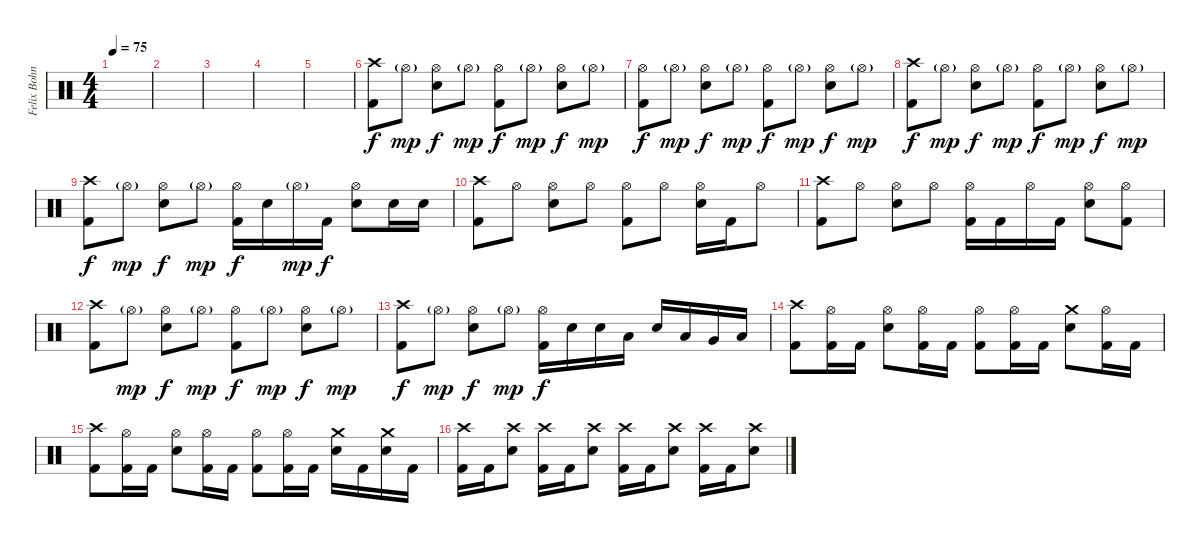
\track ("Felix Bohnke" "Felix Bohn") {instrument percussion}
\staff {score}
\articulation defaults
\ts (4 4)
\tempo 75
\clef neutral
\ks c
|
|
|
|
|
("Crash high (hit)" "Kick (hit) 2").8 "Hi-Hat (open)"{g}.8{dy mp} ("Hi-Hat (open)" "Snare (hit) 2").8{dy f} "Hi-Hat (open)"{g}.8{dy mp} ("Hi-Hat (open)" "Kick (hit) 2").8{dy f} "Hi-Hat (open)"{g}.8{dy mp} ("Hi-Hat (open)" "Snare (hit) 2").8{dy f} "Hi-Hat (open)"{g}.8{dy mp} |
("Hi-Hat (open)" "Kick (hit) 2").8{dy f} "Hi-Hat (open)"{g}.8{dy mp} ("Hi-Hat (open)" "Snare (hit) 2").8{dy f} "Hi-Hat (open)"{g}.8{dy mp} ("Hi-Hat (open)" "Kick (hit) 2").8{dy f} "Hi-Hat (open)"{g}.8{dy mp} ("Hi-Hat (open)" "Snare (hit) 2").8{dy f} "Hi-Hat (open)"{g}.8{dy mp} |
("Crash high (hit)" "Kick (hit) 2").8{dy f} "Hi-Hat (open)"{g}.8{dy mp} ("Hi-Hat (open)" "Snare (hit) 2").8{dy f} "Hi-Hat (open)"{g}.8{dy mp} ("Hi-Hat (open)" "Kick (hit) 2").8{dy f} "Hi-Hat (open)"{g}.8{dy mp} ("Hi-Hat (open)" "Snare (hit) 2").8{dy f} "Hi-Hat (open)"{g}.8{dy mp} |
("Crash high (hit)" "Kick (hit) 2").8{dy f} "Hi-Hat (open)"{g}.8{dy mp} ("Hi-Hat (open)" "Snare (hit) 2").8{dy f} "Hi-Hat (open)"{g}.8{dy mp} ("Hi-Hat (open)" "Kick (hit) 2").16{dy f} "Snare (hit) 2".16 "Hi-Hat (open)"{g}.16{dy mp} "Kick (hit) 2".16{dy f} ("Hi-Hat (open)" "Snare (hit) 2").8 "Snare (hit) 2".16 "Snare (hit) 2".16 |
("Crash high (hit)" "Kick (hit) 2").8 "Hi-Hat (open)".8 ("Hi-Hat (open)" "Snare (hit) 2").8 "Hi-Hat (open)".8 ("Hi-Hat (open)" "Kick (hit) 2").8 "Hi-Hat (open)".8 ("Hi-Hat (open)" "Snare (hit) 2").16 "Kick (hit) 2".16 "Hi-Hat (open)".8 |
("Crash high (hit)" "Kick (hit) 2").8 "Hi-Hat (open)".8 ("Hi-Hat (open)" "Snare (hit) 2").8 "Hi-Hat (open)".8 ("Hi-Hat (open)" "Kick (hit) 2").16 "Kick (hit) 2".16 "Hi-Hat (open)".16 "Kick (hit) 2".16 ("Hi-Hat (open)" "Snare (hit) 2").8 ("Hi-Hat (open)" "Kick (hit) 2").8 |
("Crash high (hit)" "Kick (hit) 2").8 "Hi-Hat (open)"{g}.8{dy mp} ("Hi-Hat (open)" "Snare (hit) 2").8{dy f} "Hi-Hat (open)"{g}.8{dy mp} ("Hi-Hat (open)" "Kick (hit) 2").8{dy f} "Hi-Hat (open)"{g}.8{dy mp} ("Hi-Hat (open)" "Snare (hit) 2").8{dy f} "Hi-Hat (open)"{g}.8{dy mp} |
("Crash high (hit)" "Kick (hit) 2").8{dy f} "Hi-Hat (open)"{g}.8{dy mp} ("Hi-Hat (open)" "Snare (hit) 2").8{dy f} "Hi-Hat (open)"{g}.8{dy mp} ("Hi-Hat (open)" "Kick (hit) 2").16{dy f} "Snare (hit) 2".16 "Snare (hit) 2".16 "Low Tom (hit)".16 "Snare (hit) 2".16 "Low Tom (hit)".16 "Very Low Tom (hit)".16 "Low Floor Tom (hit)".16 |
("Crash high (hit)" "Kick (hit) 2").8 ("Hi-Hat (open)" "Kick (hit) 2").16 "Kick (hit) 2".16 ("Hi-Hat (open)" "Snare (hit) 2").8 ("Hi-Hat (open)" "Kick (hit) 2").16 "Kick (hit) 2".16 ("Hi-Hat (open)" "Kick (hit) 2").8 ("Hi-Hat (open)" "Kick (hit) 2").16 "Kick (hit) 2".16 ("Crash medium (hit)" "Snare (hit) 2").8 ("Hi-Hat (open)" "Kick (hit) 2").16 "Kick (hit) 2".16 |
("Crash high (hit)" "Kick (hit) 2").8 ("Hi-Hat (open)" "Kick (hit) 2").16 "Kick (hit) 2".16 ("Hi-Hat (open)" "Snare (hit) 2").8 ("Hi-Hat (open)" "Kick (hit) 2").16 "Kick (hit) 2".16 ("Hi-Hat (open)" "Kick (hit) 2").8 ("Hi-Hat (open)" "Kick (hit) 2").16 "Kick (hit) 2".16 ("Crash medium (hit)" "Snare (hit) 2").16 "Kick (hit) 2".16 ("Crash medium (hit)" "Snare (hit) 2").16 "Kick (hit) 2".16 |
("Crash high (hit)" "Kick (hit) 2").16 "Kick (hit) 2".16 ("Crash high (hit)" "Snare (hit) 2").8 ("Crash high (hit)" "Kick (hit) 2").16 "Kick (hit) 2".16 ("Crash high (hit)" "Snare (hit) 2").8 ("Crash high (hit)" "Kick (hit) 2").16 "Kick (hit) 2".16 ("Crash high (hit)" "Snare (hit) 2").8 ("Crash high (hit)" "Kick (hit) 2").16 "Kick (hit) 2".16 ("Crash high (hit)" "Snare (hit) 2").8
